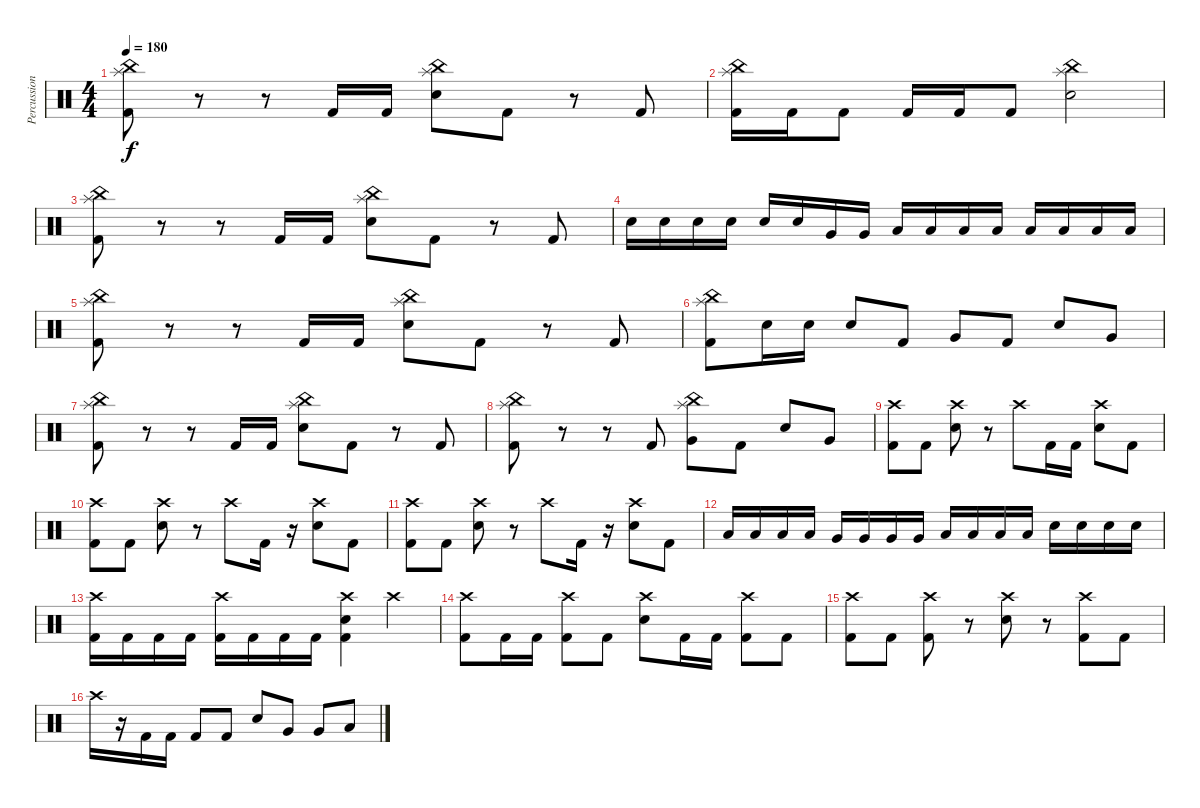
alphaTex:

\track ("Percussions" "Percussion") {instrument percussion}
\staff {score}
\articulation defaults
\ts (4 4)
\tempo 180
\clef neutral
\ks c
("Splash (hit)" "China (hit)" "Kick (hit) 2").8{dy f} r.8 r.8 "Kick (hit) 2".16 "Kick (hit) 2".16 ("China (hit)" "Splash (hit)" "Electric Snare (hit)").8 "Kick (hit) 2".8 r.8 "Kick (hit) 2".8 |
("China (hit)" "Splash (hit)" "Kick (hit) 2").16 "Kick (hit) 2".16 "Kick (hit) 2".8 "Kick (hit) 2".16 "Kick (hit) 2".16 "Kick (hit) 2".8 ("China (hit)" "Splash (hit)" "Electric Snare (hit)").2 |
("Splash (hit)" "China (hit)" "Kick (hit) 2").8 r.8 r.8 "Kick (hit) 2".16 "Kick (hit) 2".16 ("China (hit)" "Splash (hit)" "Electric Snare (hit)").8 "Kick (hit) 2".8 r.8 "Kick (hit) 2".8 |
"Electric Snare (hit)".16 "Electric Snare (hit)".16 "Electric Snare (hit)".16 "Electric Snare (hit)".16 "Electric Snare (hit)".16 "Electric Snare (hit)".16 "Very Low Tom (hit)".16 "Very Low Tom (hit)".16 "Low Tom (hit)".16 "Low Tom (hit)".16 "Low Tom (hit)".16 "Low Tom (hit)".16 "Low Tom (hit)".16 "Low Tom (hit)".16 "Low Tom (hit)".16 "Low Tom (hit)".16 |
("Splash (hit)" "China (hit)" "Kick (hit) 2").8 r.8 r.8 "Kick (hit) 2".16 "Kick (hit) 2".16 ("China (hit)" "Splash (hit)" "Electric Snare (hit)").8 "Kick (hit) 2".8 r.8 "Kick (hit) 2".8 |
("China (hit)" "Splash (hit)" "Kick (hit) 2").8 "Electric Snare (hit)".16 "Electric Snare (hit)".16 "Electric Snare (hit)".8 "Kick (hit) 2".8 "Very Low Tom (hit)".8 "Kick (hit) 2".8 "Electric Snare (hit)".8 "Very Low Tom (hit)".8 |
("Splash (hit)" "China (hit)" "Kick (hit) 2").8 r.8 r.8 "Kick (hit) 2".16 "Kick (hit) 2".16 ("China (hit)" "Splash (hit)" "Electric Snare (hit)").8 "Kick (hit) 2".8 r.8 "Kick (hit) 2".8 |
("China (hit)" "Splash (hit)" "Kick (hit) 2").8 r.8 r.8 "Kick (hit) 2".8 ("China (hit)" "Splash (hit)" "Very Low Tom (hit)").8 "Kick (hit) 2".8 "Electric Snare (hit)".8 "Very Low Tom (hit)".8 |
("Crash high (hit)" "Kick (hit) 2").8 "Kick (hit) 2".8 ("Crash high (hit)" "Electric Snare (hit)").8 r.8 "Crash high (hit)".8 "Kick (hit) 2".16 "Kick (hit) 2".16 ("Crash high (hit)" "Electric Snare (hit)").8 "Kick (hit) 2".8 |
("Crash high (hit)" "Kick (hit) 2").8 "Kick (hit) 2".8 ("Crash high (hit)" "Electric Snare (hit)").8 r.8 "Crash high (hit)".8 "Kick (hit) 2".16 r.16 ("Crash high (hit)" "Electric Snare (hit)").8 "Kick (hit) 2".8 |
("Crash high (hit)" "Kick (hit) 2").8 "Kick (hit) 2".8 ("Crash high (hit)" "Electric Snare (hit)").8 r.8 "Crash high (hit)".8 "Kick (hit) 2".16 r.16 ("Crash high (hit)" "Electric Snare (hit)").8 "Kick (hit) 2".8 |
"Low Tom (hit)".16 "Low Tom (hit)".16 "Low Tom (hit)".16 "Low Tom (hit)".16 "Very Low Tom (hit)".16 "Very Low Tom (hit)".16 "Very Low Tom (hit)".16 "Very Low Tom (hit)".16 "Low Floor Tom (hit)".16 "Low Floor Tom (hit)".16 "Low Floor Tom (hit)".16 "Low Floor Tom (hit)".16 "Electric Snare (hit)".16 "Electric Snare (hit)".16 "Electric Snare (hit)".16 "Electric Snare (hit)".16 |
("Crash high (hit)" "Kick (hit) 2").16 "Kick (hit) 2".16 "Kick (hit) 2".16 "Kick (hit) 2".16 ("Crash high (hit)" "Kick (hit) 2").16 "Kick (hit) 2".16 "Kick (hit) 2".16 "Kick (hit) 2".16 ("Crash high (hit)" "Electric Snare (hit)" "Kick (hit) 2").4 "Crash high (hit)".4 |
("Crash high (hit)" "Kick (hit) 2").8 "Kick (hit) 2".16 "Kick (hit) 2".16 ("Crash high (hit)" "Kick (hit) 2").8 "Kick (hit) 2".8 ("Crash high (hit)" "Electric Snare (hit)").8 "Kick (hit) 2".16 "Kick (hit) 2".16 ("Crash high (hit)" "Kick (hit) 2").8 "Kick (hit) 2".8 |
("Crash high (hit)" "Kick (hit) 2").8 "Kick (hit) 2".8 ("Crash high (hit)" "Kick (hit) 2").8 r.8 ("Crash high (hit)" "Electric Snare (hit)").8 r.8 ("Crash high (hit)" "Kick (hit) 2").8 "Kick (hit) 2".8 |
"Crash high (hit)".16 r.16 "Kick (hit) 2".16 "Kick (hit) 2".16 "Kick (hit) 2".8 "Kick (hit) 2".8 "Electric Snare (hit)".8 "Very Low Tom (hit)".8 "Very Low Tom (hit)".8 "Low Floor Tom (hit)".8
